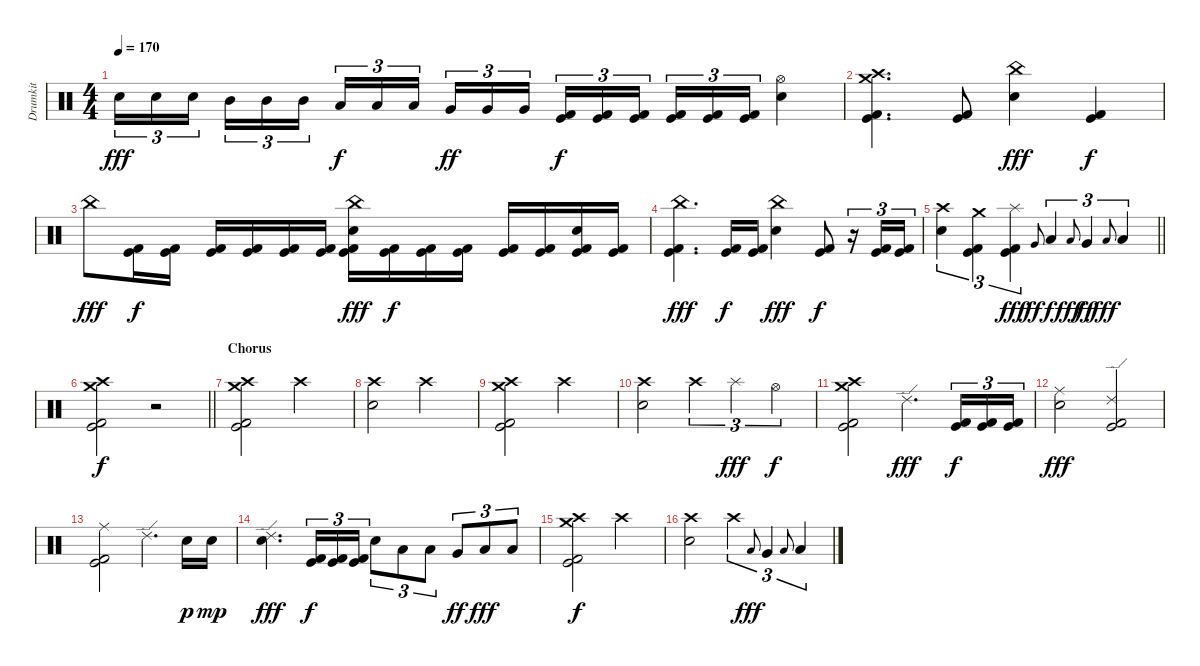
\track ("Drumkit" "Drumkit") {instrument percussion}
\staff {score}
\articulation defaults
\ts (4 4)
\tempo 170
\clef neutral
\ks c "Electric Snare (hit)".16{tu (3 2) dy fff} "Electric Snare (hit)".16{tu (3 2)} "Electric Snare (hit)".16{tu (3 2) beam splitsecondary} "Mid Tom (hit)".16{tu (3 2)} "Mid Tom (hit)".16{tu (3 2)} "Mid Tom (hit)".16{tu (3 2)} "Low Tom (hit)".16{tu (3 2) dy f} "Low Tom (hit)".16{tu (3 2)} "Low Tom (hit)".16{tu (3 2) beam splitsecondary} "Very Low Tom (hit)".16{tu (3 2) dy ff} "Very Low Tom (hit)".16{tu (3 2)} "Very Low Tom (hit)".16{tu (3 2)}
("Kick (hit)" "Kick (hit) 2").16{tu (3 2) dy f} ("Kick (hit)" "Kick (hit) 2").16{tu (3 2)} ("Kick (hit)" "Kick (hit) 2").16{tu (3 2) beam splitsecondary} ("Kick (hit)" "Kick (hit) 2").16{tu (3 2)} ("Kick (hit)" "Kick (hit) 2").16{tu (3 2)} ("Kick (hit)" "Kick (hit) 2").16{tu (3 2)} ("Hi-Hat (open)" "Electric Snare (hit)").4 |
("Crash high (hit)" "Crash medium (hit)" "Kick (hit)" "Kick (hit) 2").4{d} ("Kick (hit)" "Kick (hit) 2").8 ("China (hit)" "Electric Snare (hit)").4{dy fff} ("Kick (hit)" "Kick (hit) 2").4{dy f} |
"China (hit)".8{dy fff} ("Kick (hit)" "Kick (hit) 2").16{dy f} ("Kick (hit)" "Kick (hit) 2").16 ("Kick (hit)" "Kick (hit) 2").16 ("Kick (hit)" "Kick (hit) 2").16 ("Kick (hit)" "Kick (hit) 2").16 ("Kick (hit)" "Kick (hit) 2").16 ("China (hit)" "Electric Snare (hit)" "Kick (hit)" "Kick (hit) 2").16{dy fff} ("Kick (hit)" "Kick (hit) 2").16{dy f} ("Kick (hit)" "Kick (hit) 2").16 ("Kick (hit)" "Kick (hit) 2").16 ("Kick (hit)" "Kick (hit) 2").16 ("Kick (hit)" "Kick (hit) 2").16 ("Electric Snare (hit)" "Kick (hit)" "Kick (hit) 2").16 ("Kick (hit)" "Kick (hit) 2").16 |
("China (hit)" "Kick (hit)" "Kick (hit) 2").4{d dy fff} ("Kick (hit)" "Kick (hit) 2").16{dy f} ("Kick (hit)" "Kick (hit) 2").16 ("China (hit)" "Electric Snare (hit)").4{dy fff} ("Kick (hit)" "Kick (hit) 2").8{dy f} r.16{tu (3 2)} ("Kick (hit)" "Kick (hit) 2").16{tu (3 2)} ("Kick (hit)" "Kick (hit) 2").16{tu (3 2)} |
\barLineRight lightlight
("Crash high (hit)" "Electric Snare (hit)").4{tu (3 2)} ("Crash medium (hit)" "Kick (hit)" "Kick (hit) 2").4{tu (3 2)} ("Splash (hit)" "Kick (hit)" "Kick (hit) 2").4{tu (3 2) dy fff} "Very Low Tom (hit)".8{gr onbeat dy ff} "Low Tom (hit)".4{tu (3 2) dy f} "Low Tom (hit)".8{gr onbeat dy fff} "Very Low Tom (hit)".4{tu (3 2) dy ff} "Low Floor Tom (hit)".8{gr onbeat dy fff} "Low Floor Tom (hit)".4{tu (3 2)} |
\barLineRight lightlight
("Crash high (hit)" "Crash medium (hit)" "Kick (hit)" "Kick (hit) 2").2{dy f} r.2 |
\section ("" "Chorus")
("Crash high (hit)" "Crash medium (hit)" "Kick (hit)" "Kick (hit) 2").2 "Crash high (hit)".2 |
("Crash high (hit)" "Electric Snare (hit)").2 "Crash high (hit)".2 |
("Crash high (hit)" "Crash medium (hit)" "Kick (hit)" "Kick (hit) 2").2 "Crash high (hit)".2 |
("Crash high (hit)" "Electric Snare (hit)").2 "Crash high (hit)".4{tu (3 2)} "Splash (hit)".4{tu (3 2) dy fff} "Hi-Hat (open)".4{tu (3 2) dy f} |
("Crash high (hit)" "Crash medium (hit)" "Kick (hit)" "Kick (hit) 2").2 "Ride (edge) 2".4{d dy fff} ("Kick (hit)" "Kick (hit) 2").16{tu (3 2) dy f} ("Kick (hit)" "Kick (hit) 2").16{tu (3 2)} ("Kick (hit)" "Kick (hit) 2").16{tu (3 2)} |
("Ride (middle)" "Electric Snare (hit)").2{dy fff} ("Ride (edge) 2" "Kick (hit)" "Kick (hit) 2").2 |
("Ride (middle)" "Kick (hit)" "Kick (hit) 2").2 "Ride (edge) 2".4{d} "Electric Snare (hit)".16{dy p} "Electric Snare (hit)".16{dy mp} |
("Ride (edge) 2" "Electric Snare (hit)").4{d dy fff} ("Kick (hit)" "Kick (hit) 2").16{tu (3 2) dy f} ("Kick (hit)" "Kick (hit) 2").16{tu (3 2)} ("Kick (hit)" "Kick (hit) 2").16{tu (3 2)} "Electric Snare (hit)".8{tu (3 2)} "Low Tom (hit)".8{tu (3 2)} "Low Tom (hit)".8{tu (3 2)} "Very Low Tom (hit)".8{tu (3 2) dy ff} "Low Floor Tom (hit)".8{tu (3 2) dy fff} "Low Floor Tom (hit)".8{tu (3 2)} |
("Crash high (hit)" "Crash medium (hit)" "Kick (hit)" "Kick (hit) 2").2{dy f} "Crash high (hit)".2 |
("Crash high (hit)" "Electric Snare (hit)").2 "Crash high (hit)".4{tu (3 2)} "Low Tom (hit)".8{gr onbeat dy fff} "Very Low Tom (hit)".4{tu (3 2)} "Low Floor Tom (hit)".8{gr onbeat} "Low Floor Tom (hit)".4{tu (3 2)}
